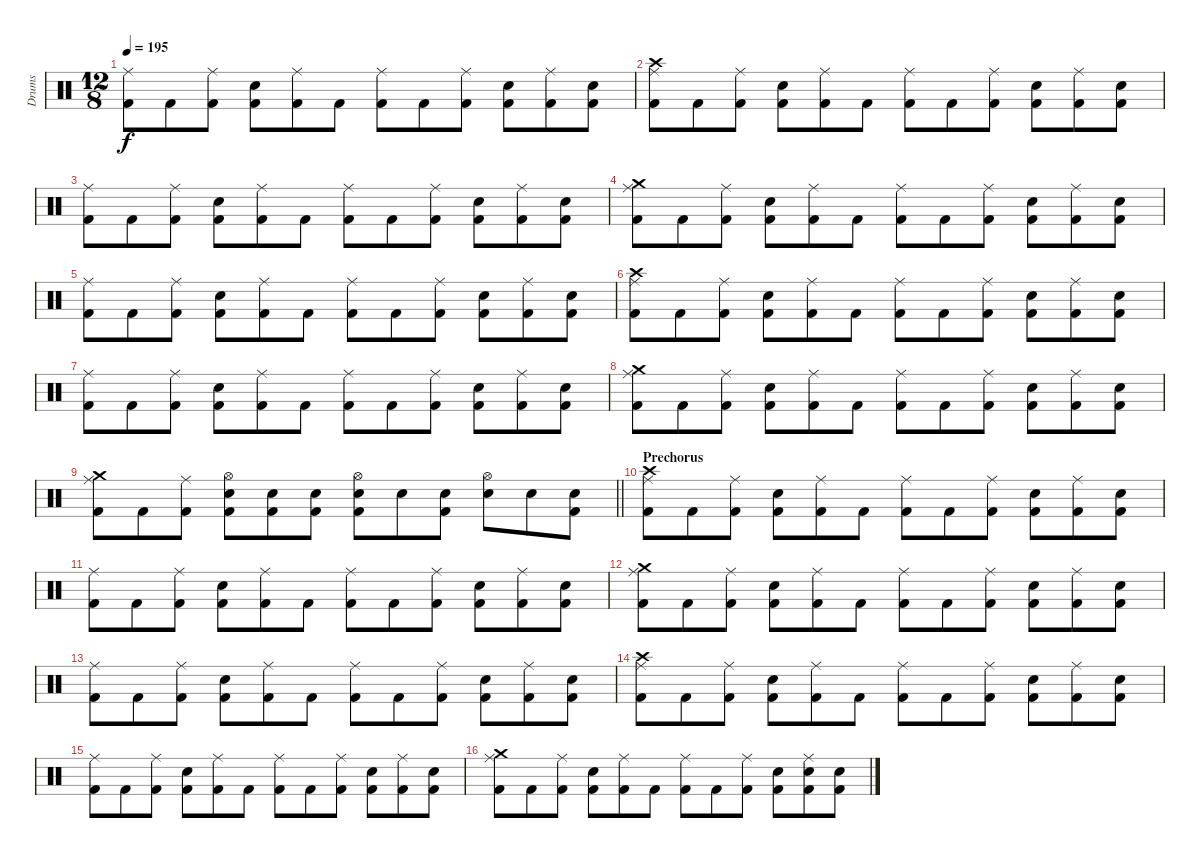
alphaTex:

\track ("Drums" "Drums") {instrument percussion}
\staff {score}
\articulation defaults
\ts (12 8)
\tempo 195
\clef neutral
\ks c
("Ride (middle)" "Kick (hit) 2").8{dy f} "Kick (hit) 2".8 ("Ride (middle)" "Kick (hit) 2").8 ("Snare (hit) 2" "Kick (hit) 2").8 ("Ride (middle)" "Kick (hit) 2").8 "Kick (hit) 2".8 ("Ride (middle)" "Kick (hit) 2").8 "Kick (hit) 2".8 ("Ride (middle)" "Kick (hit) 2").8 ("Snare (hit) 2" "Kick (hit) 2").8 ("Ride (middle)" "Kick (hit) 2").8 ("Snare (hit) 2" "Kick (hit) 2").8 |
("Crash high (hit)" "Ride (middle)" "Kick (hit) 2").8 "Kick (hit) 2".8 ("Ride (middle)" "Kick (hit) 2").8 ("Snare (hit) 2" "Kick (hit) 2").8 ("Ride (middle)" "Kick (hit) 2").8 "Kick (hit) 2".8 ("Ride (middle)" "Kick (hit) 2").8 "Kick (hit) 2".8 ("Ride (middle)" "Kick (hit) 2").8 ("Snare (hit) 2" "Kick (hit) 2").8 ("Ride (middle)" "Kick (hit) 2").8 ("Snare (hit) 2" "Kick (hit) 2").8 |
("Ride (middle)" "Kick (hit) 2").8 "Kick (hit) 2".8 ("Ride (middle)" "Kick (hit) 2").8 ("Snare (hit) 2" "Kick (hit) 2").8 ("Ride (middle)" "Kick (hit) 2").8 "Kick (hit) 2".8 ("Ride (middle)" "Kick (hit) 2").8 "Kick (hit) 2".8 ("Ride (middle)" "Kick (hit) 2").8 ("Snare (hit) 2" "Kick (hit) 2").8 ("Ride (middle)" "Kick (hit) 2").8 ("Snare (hit) 2" "Kick (hit) 2").8 |
("Crash medium (hit)" "Ride (middle)" "Kick (hit) 2").8 "Kick (hit) 2".8 ("Ride (middle)" "Kick (hit) 2").8 ("Snare (hit) 2" "Kick (hit) 2").8 ("Ride (middle)" "Kick (hit) 2").8 "Kick (hit) 2".8 ("Ride (middle)" "Kick (hit) 2").8 "Kick (hit) 2".8 ("Ride (middle)" "Kick (hit) 2").8 ("Snare (hit) 2" "Kick (hit) 2").8 ("Ride (middle)" "Kick (hit) 2").8 ("Snare (hit) 2" "Kick (hit) 2").8 |
("Ride (middle)" "Kick (hit) 2").8 "Kick (hit) 2".8 ("Ride (middle)" "Kick (hit) 2").8 ("Snare (hit) 2" "Kick (hit) 2").8 ("Ride (middle)" "Kick (hit) 2").8 "Kick (hit) 2".8 ("Ride (middle)" "Kick (hit) 2").8 "Kick (hit) 2".8 ("Ride (middle)" "Kick (hit) 2").8 ("Snare (hit) 2" "Kick (hit) 2").8 ("Ride (middle)" "Kick (hit) 2").8 ("Snare (hit) 2" "Kick (hit) 2").8 |
("Crash high (hit)" "Ride (middle)" "Kick (hit) 2").8 "Kick (hit) 2".8 ("Ride (middle)" "Kick (hit) 2").8 ("Snare (hit) 2" "Kick (hit) 2").8 ("Ride (middle)" "Kick (hit) 2").8 "Kick (hit) 2".8 ("Ride (middle)" "Kick (hit) 2").8 "Kick (hit) 2".8 ("Ride (middle)" "Kick (hit) 2").8 ("Snare (hit) 2" "Kick (hit) 2").8 ("Ride (middle)" "Kick (hit) 2").8 ("Snare (hit) 2" "Kick (hit) 2").8 |
("Ride (middle)" "Kick (hit) 2").8 "Kick (hit) 2".8 ("Ride (middle)" "Kick (hit) 2").8 ("Snare (hit) 2" "Kick (hit) 2").8 ("Ride (middle)" "Kick (hit) 2").8 "Kick (hit) 2".8 ("Ride (middle)" "Kick (hit) 2").8 "Kick (hit) 2".8 ("Ride (middle)" "Kick (hit) 2").8 ("Snare (hit) 2" "Kick (hit) 2").8 ("Ride (middle)" "Kick (hit) 2").8 ("Snare (hit) 2" "Kick (hit) 2").8 |
("Crash medium (hit)" "Ride (middle)" "Kick (hit) 2").8 "Kick (hit) 2".8 ("Ride (middle)" "Kick (hit) 2").8 ("Snare (hit) 2" "Kick (hit) 2").8 ("Ride (middle)" "Kick (hit) 2").8 "Kick (hit) 2".8 ("Ride (middle)" "Kick (hit) 2").8 "Kick (hit) 2".8 ("Ride (middle)" "Kick (hit) 2").8 ("Snare (hit) 2" "Kick (hit) 2").8 ("Ride (middle)" "Kick (hit) 2").8 ("Snare (hit) 2" "Kick (hit) 2").8 |
\barLineRight lightlight
("Crash medium (hit)" "Ride (middle)" "Kick (hit) 2").8 "Kick (hit) 2".8 ("Ride (middle)" "Kick (hit) 2").8 ("Hi-Hat (open)" "Snare (hit) 2" "Kick (hit) 2").8 ("Snare (hit) 2" "Kick (hit) 2").8 ("Snare (hit) 2" "Kick (hit) 2").8 ("Hi-Hat (open)" "Snare (hit) 2" "Kick (hit) 2").8 "Snare (hit) 2".8 ("Snare (hit) 2" "Kick (hit) 2").8 ("Hi-Hat (open)" "Snare (hit) 2").8 "Snare (hit) 2".8 ("Snare (hit) 2" "Kick (hit) 2").8 |
\section ("" "Prechorus")
("Crash high (hit)" "Ride (middle)" "Kick (hit) 2").8 "Kick (hit) 2".8 ("Ride (middle)" "Kick (hit) 2").8 ("Snare (hit) 2" "Kick (hit) 2").8 ("Ride (middle)" "Kick (hit) 2").8 "Kick (hit) 2".8 ("Ride (middle)" "Kick (hit) 2").8 "Kick (hit) 2".8 ("Ride (middle)" "Kick (hit) 2").8 ("Snare (hit) 2" "Kick (hit) 2").8 ("Ride (middle)" "Kick (hit) 2").8 ("Snare (hit) 2" "Kick (hit) 2").8 |
("Ride (middle)" "Kick (hit) 2").8 "Kick (hit) 2".8 ("Ride (middle)" "Kick (hit) 2").8 ("Snare (hit) 2" "Kick (hit) 2").8 ("Ride (middle)" "Kick (hit) 2").8 "Kick (hit) 2".8 ("Ride (middle)" "Kick (hit) 2").8 "Kick (hit) 2".8 ("Ride (middle)" "Kick (hit) 2").8 ("Snare (hit) 2" "Kick (hit) 2").8 ("Ride (middle)" "Kick (hit) 2").8 ("Snare (hit) 2" "Kick (hit) 2").8 |
("Crash medium (hit)" "Ride (middle)" "Kick (hit) 2").8 "Kick (hit) 2".8 ("Ride (middle)" "Kick (hit) 2").8 ("Snare (hit) 2" "Kick (hit) 2").8 ("Ride (middle)" "Kick (hit) 2").8 "Kick (hit) 2".8 ("Ride (middle)" "Kick (hit) 2").8 "Kick (hit) 2".8 ("Ride (middle)" "Kick (hit) 2").8 ("Snare (hit) 2" "Kick (hit) 2").8 ("Ride (middle)" "Kick (hit) 2").8 ("Snare (hit) 2" "Kick (hit) 2").8 |
("Ride (middle)" "Kick (hit) 2").8 "Kick (hit) 2".8 ("Ride (middle)" "Kick (hit) 2").8 ("Snare (hit) 2" "Kick (hit) 2").8 ("Ride (middle)" "Kick (hit) 2").8 "Kick (hit) 2".8 ("Ride (middle)" "Kick (hit) 2").8 "Kick (hit) 2".8 ("Ride (middle)" "Kick (hit) 2").8 ("Snare (hit) 2" "Kick (hit) 2").8 ("Ride (middle)" "Kick (hit) 2").8 ("Snare (hit) 2" "Kick (hit) 2").8 |
("Crash high (hit)" "Ride (middle)" "Kick (hit) 2").8 "Kick (hit) 2".8 ("Ride (middle)" "Kick (hit) 2").8 ("Snare (hit) 2" "Kick (hit) 2").8 ("Ride (middle)" "Kick (hit) 2").8 "Kick (hit) 2".8 ("Ride (middle)" "Kick (hit) 2").8 "Kick (hit) 2".8 ("Ride (middle)" "Kick (hit) 2").8 ("Snare (hit) 2" "Kick (hit) 2").8 ("Ride (middle)" "Kick (hit) 2").8 ("Snare (hit) 2" "Kick (hit) 2").8 |
("Ride (middle)" "Kick (hit) 2").8 "Kick (hit) 2".8 ("Ride (middle)" "Kick (hit) 2").8 ("Snare (hit) 2" "Kick (hit) 2").8 ("Ride (middle)" "Kick (hit) 2").8 "Kick (hit) 2".8 ("Ride (middle)" "Kick (hit) 2").8 "Kick (hit) 2".8 ("Ride (middle)" "Kick (hit) 2").8 ("Snare (hit) 2" "Kick (hit) 2").8 ("Ride (middle)" "Kick (hit) 2").8 ("Snare (hit) 2" "Kick (hit) 2").8 |
("Crash medium (hit)" "Ride (middle)" "Kick (hit) 2").8 "Kick (hit) 2".8 ("Ride (middle)" "Kick (hit) 2").8 ("Snare (hit) 2" "Kick (hit) 2").8 ("Ride (middle)" "Kick (hit) 2").8 "Kick (hit) 2".8 ("Ride (middle)" "Kick (hit) 2").8 "Kick (hit) 2".8 ("Ride (middle)" "Kick (hit) 2").8 ("Snare (hit) 2" "Kick (hit) 2").8 ("Ride (middle)" "Snare (hit) 2" "Kick (hit) 2").8 ("Snare (hit) 2" "Kick (hit) 2").8
